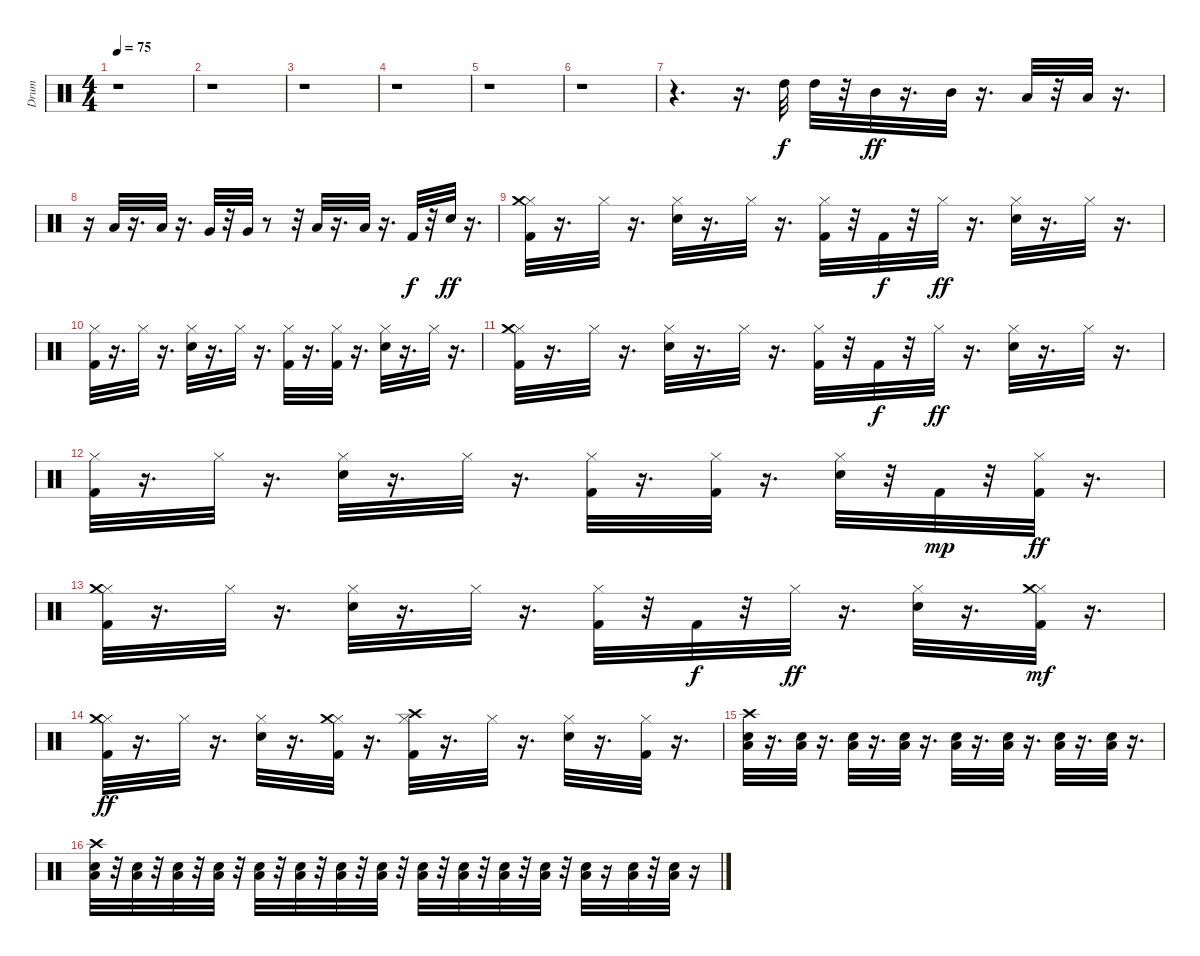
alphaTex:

\track ("Drum" "Drum") {instrument percussion}
\staff {score}
\articulation defaults
\ts (4 4)
\tempo 75
\clef neutral
\ks c
r.1{dy f} |
r.1 |
r.1 |
r.1 |
r.1 |
r.1 |
r.4{d} r.16{d} "High Tom (hit)".32 "High Tom (hit)".32 r.32 "Mid Tom (hit)".32{dy ff} r.16{d} "Mid Tom (hit)".32 r.16{d} "Low Tom (hit)".32 r.32 "Low Tom (hit)".32 r.16{d} |
r.16 "Low Tom (hit)".32 r.16{d} "Low Tom (hit)".32 r.16{d} "Very Low Tom (hit)".32 r.32 "Very Low Tom (hit)".32 r.8 r.32 "Low Floor Tom (hit)".32 r.16{d} "Low Floor Tom (hit)".32 r.16{d} "Kick (hit) 2".32{dy f} r.32 "Snare (hit) 2".32{dy ff} r.16{d} |
("Kick (hit) 2" "Hi-Hat (closed)" "Crash medium (hit)").32 r.16{d} "Hi-Hat (closed)".32 r.16{d} ("Hi-Hat (closed)" "Snare (hit) 2").32 r.16{d} "Hi-Hat (closed)".32 r.16{d} ("Kick (hit) 2" "Hi-Hat (closed)").32 r.32 "Kick (hit) 2".32{dy f} r.32 "Hi-Hat (closed)".32{dy ff} r.16{d} ("Hi-Hat (closed)" "Snare (hit) 2").32 r.16{d} "Hi-Hat (closed)".32 r.16{d} |
("Kick (hit) 2" "Hi-Hat (closed)").32 r.16{d} "Hi-Hat (closed)".32 r.16{d} ("Hi-Hat (closed)" "Snare (hit) 2").32 r.16{d} "Hi-Hat (closed)".32 r.16{d} ("Kick (hit) 2" "Hi-Hat (closed)").32 r.16{d} ("Kick (hit) 2" "Hi-Hat (closed)").32 r.16{d} ("Hi-Hat (closed)" "Snare (hit) 2").32 r.16{d} "Hi-Hat (closed)".32 r.16{d} |
("Kick (hit) 2" "Hi-Hat (closed)" "Crash medium (hit)").32 r.16{d} "Hi-Hat (closed)".32 r.16{d} ("Hi-Hat (closed)" "Snare (hit) 2").32 r.16{d} "Hi-Hat (closed)".32 r.16{d} ("Kick (hit) 2" "Hi-Hat (closed)").32 r.32 "Kick (hit) 2".32{dy f} r.32 "Hi-Hat (closed)".32{dy ff} r.16{d} ("Hi-Hat (closed)" "Snare (hit) 2").32 r.16{d} "Hi-Hat (closed)".32 r.16{d} |
("Kick (hit) 2" "Hi-Hat (closed)").32 r.16{d} "Hi-Hat (closed)".32 r.16{d} ("Hi-Hat (closed)" "Snare (hit) 2").32 r.16{d} "Hi-Hat (closed)".32 r.16{d} ("Kick (hit) 2" "Hi-Hat (closed)").32 r.16{d} ("Kick (hit) 2" "Hi-Hat (closed)").32 r.16{d} ("Hi-Hat (closed)" "Snare (hit) 2").32 r.32 "Kick (hit) 2".32{dy mp} r.32 ("Kick (hit) 2" "Hi-Hat (closed)").32{dy ff} r.16{d} |
("Kick (hit) 2" "Hi-Hat (closed)" "Crash medium (hit)").32 r.16{d} "Hi-Hat (closed)".32 r.16{d} ("Hi-Hat (closed)" "Snare (hit) 2").32 r.16{d} "Hi-Hat (closed)".32 r.16{d} ("Kick (hit) 2" "Hi-Hat (closed)").32 r.32 "Kick (hit) 2".32{dy f} r.32 "Hi-Hat (closed)".32{dy ff} r.16{d} ("Hi-Hat (closed)" "Snare (hit) 2").32 r.16{d} ("Kick (hit) 2" "Hi-Hat (closed)" "Crash medium (hit)").32{dy mf} r.16{d} |
("Kick (hit) 2" "Hi-Hat (closed)" "Crash medium (hit)").32{dy ff} r.16{d} "Hi-Hat (closed)".32 r.16{d} ("Hi-Hat (closed)" "Snare (hit) 2").32 r.16{d} ("Kick (hit) 2" "Hi-Hat (closed)" "Crash medium (hit)").32 r.16{d} ("Kick (hit) 2" "Hi-Hat (closed)" "Crash high (hit)").32 r.16{d} "Hi-Hat (closed)".32 r.16{d} ("Hi-Hat (closed)" "Snare (hit) 2").32 r.16{d} ("Kick (hit) 2" "Hi-Hat (closed)").32 r.16{d} |
("Crash high (hit)" "Snare (hit) 2" "Low Tom (hit)").32 r.16{d} ("Snare (hit) 2" "Low Tom (hit)").32 r.16{d} ("Snare (hit) 2" "Low Tom (hit)").32 r.16{d} ("Snare (hit) 2" "Low Tom (hit)").32 r.16{d} ("Snare (hit) 2" "Low Tom (hit)").32 r.16{d} ("Snare (hit) 2" "Low Tom (hit)").32 r.16{d} ("Snare (hit) 2" "Low Tom (hit)").32 r.16{d} ("Snare (hit) 2" "Low Tom (hit)").32 r.16{d} |
("Crash high (hit)" "Snare (hit) 2" "Low Tom (hit)").32 r.32 ("Snare (hit) 2" "Low Tom (hit)").32 r.32 ("Snare (hit) 2" "Low Tom (hit)").32 r.32 ("Snare (hit) 2" "Low Tom (hit)").32 r.32 ("Snare (hit) 2" "Low Tom (hit)").32 r.32 ("Snare (hit) 2" "Low Tom (hit)").32 r.32 ("Snare (hit) 2" "Low Tom (hit)").32 r.32 ("Snare (hit) 2" "Low Tom (hit)").32 r.32 ("Snare (hit) 2" "Low Tom (hit)").32 r.32 ("Snare (hit) 2" "Low Tom (hit)").32 r.32 ("Snare (hit) 2" "Low Tom (hit)").32 r.32 ("Snare (hit) 2" "Low Tom (hit)").32 r.32 ("Snare (hit) 2" "Low Tom (hit)").32 r.16 ("Snare (hit) 2" "Low Tom (hit)").32 r.32 ("Snare (hit) 2" "Low Tom (hit)").32 r.16
